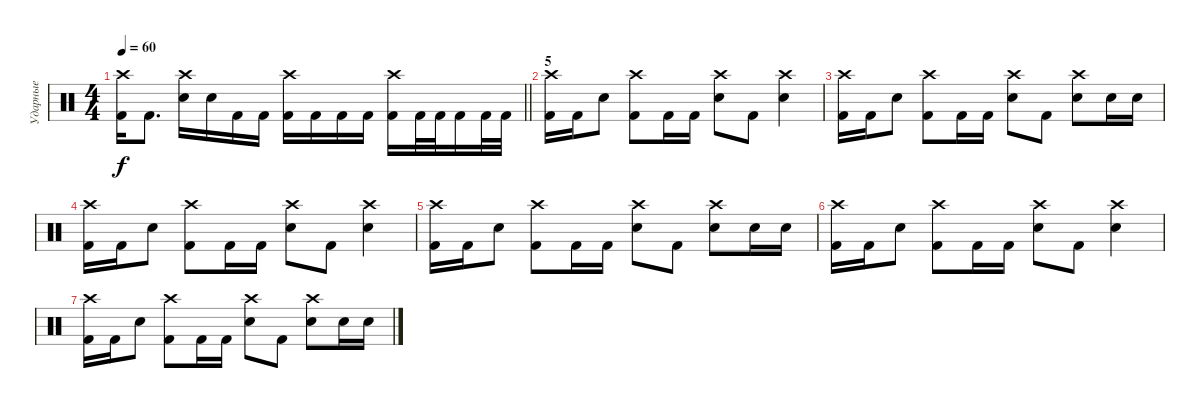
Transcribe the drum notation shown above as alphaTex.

\track ("Ударные" "Ударные") {instrument percussion}
\staff {score}
\articulation defaults
\ts (4 4)
\tempo 60
\clef neutral
\barLineRight lightlight
\ks c
("Crash high (hit)" "Kick (hit) 2").16{dy f} "Kick (hit) 2".8{d} ("Crash high (hit)" "Snare (hit) 2").16 "Snare (hit) 2".16 "Kick (hit) 2".16 "Kick (hit) 2".16 ("Crash high (hit)" "Kick (hit) 2").16 "Kick (hit) 2".16 "Kick (hit) 2".16 "Kick (hit) 2".16 ("Crash high (hit)" "Kick (hit) 2").16 "Kick (hit) 2".32 "Kick (hit) 2".32 "Kick (hit) 2".16 "Kick (hit) 2".32 "Kick (hit) 2".32 |
\section ("" "5")
("Crash high (hit)" "Kick (hit) 2").16 "Kick (hit) 2".16 "Snare (hit) 2".8 ("Crash high (hit)" "Kick (hit) 2").8 "Kick (hit) 2".16 "Kick (hit) 2".16 ("Crash high (hit)" "Snare (hit) 2").8 "Kick (hit) 2".8 ("Crash high (hit)" "Snare (hit) 2").4 |
("Crash high (hit)" "Kick (hit) 2").16 "Kick (hit) 2".16 "Snare (hit) 2".8 ("Crash high (hit)" "Kick (hit) 2").8 "Kick (hit) 2".16 "Kick (hit) 2".16 ("Crash high (hit)" "Snare (hit) 2").8 "Kick (hit) 2".8 ("Crash high (hit)" "Snare (hit) 2").8 "Snare (hit) 2".16 "Snare (hit) 2".16 |
("Crash high (hit)" "Kick (hit) 2").16 "Kick (hit) 2".16 "Snare (hit) 2".8 ("Crash high (hit)" "Kick (hit) 2").8 "Kick (hit) 2".16 "Kick (hit) 2".16 ("Crash high (hit)" "Snare (hit) 2").8 "Kick (hit) 2".8 ("Crash high (hit)" "Snare (hit) 2").4 |
("Crash high (hit)" "Kick (hit) 2").16 "Kick (hit) 2".16 "Snare (hit) 2".8 ("Crash high (hit)" "Kick (hit) 2").8 "Kick (hit) 2".16 "Kick (hit) 2".16 ("Crash high (hit)" "Snare (hit) 2").8 "Kick (hit) 2".8 ("Crash high (hit)" "Snare (hit) 2").8 "Snare (hit) 2".16 "Snare (hit) 2".16 |
("Crash high (hit)" "Kick (hit) 2").16 "Kick (hit) 2".16 "Snare (hit) 2".8 ("Crash high (hit)" "Kick (hit) 2").8 "Kick (hit) 2".16 "Kick (hit) 2".16 ("Crash high (hit)" "Snare (hit) 2").8 "Kick (hit) 2".8 ("Crash high (hit)" "Snare (hit) 2").4 |
("Crash high (hit)" "Kick (hit) 2").16 "Kick (hit) 2".16 "Snare (hit) 2".8 ("Crash high (hit)" "Kick (hit) 2").8 "Kick (hit) 2".16 "Kick (hit) 2".16 ("Crash high (hit)" "Snare (hit) 2").8 "Kick (hit) 2".8 ("Crash high (hit)" "Snare (hit) 2").8 "Snare (hit) 2".16 "Snare (hit) 2".16
